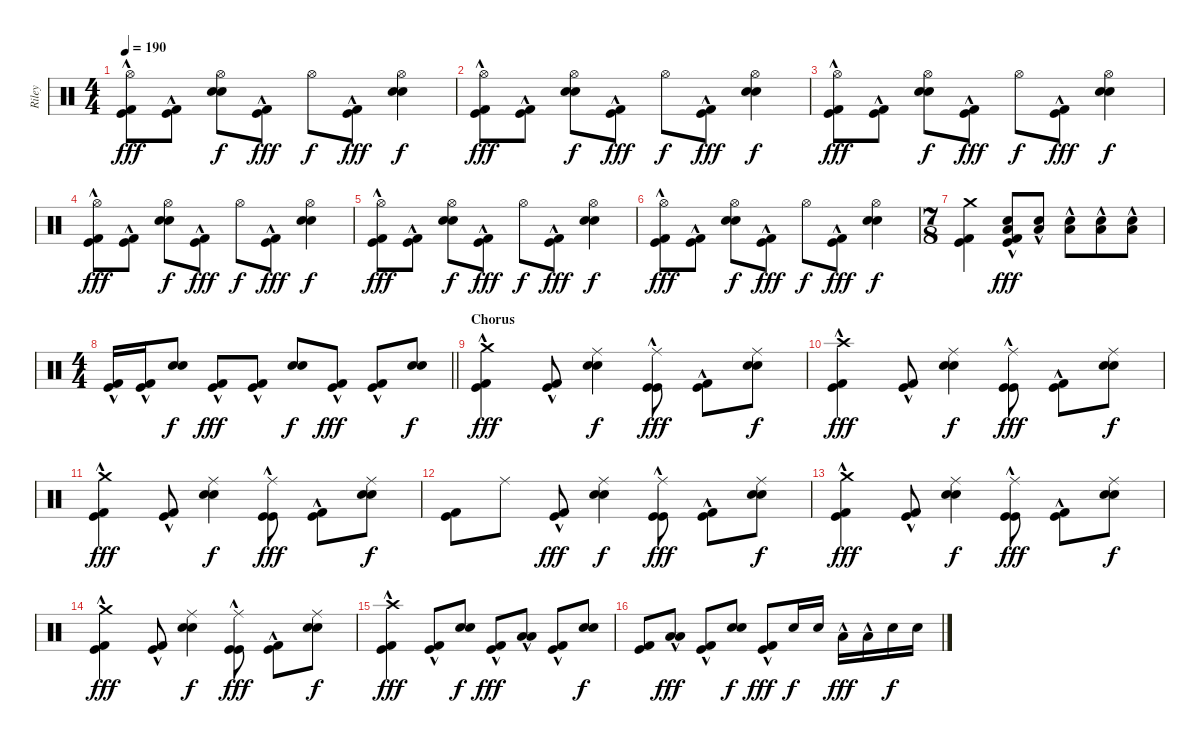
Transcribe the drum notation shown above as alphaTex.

\track ("Riley" "Riley") {instrument percussion}
\staff {score}
\articulation defaults
\ts (4 4)
\tempo 190
\clef neutral
\ks c
("Hi-Hat (open)" "Kick (hit)"{hac} "Kick (hit) 2"{hac}).8{dy fff} ("Kick (hit)"{hac} "Kick (hit) 2"{hac}).8 ("Hi-Hat (open)" "Electric Snare (hit)" "Snare (hit) 2").8{dy f} ("Kick (hit)"{hac} "Kick (hit) 2"{hac}).8{dy fff} "Hi-Hat (open)".8{dy f} ("Kick (hit)"{hac} "Kick (hit) 2"{hac}).8{dy fff} ("Hi-Hat (open)" "Electric Snare (hit)" "Snare (hit) 2").4{dy f} |
("Hi-Hat (open)" "Kick (hit)"{hac} "Kick (hit) 2"{hac}).8{dy fff} ("Kick (hit)"{hac} "Kick (hit) 2"{hac}).8 ("Hi-Hat (open)" "Electric Snare (hit)" "Snare (hit) 2").8{dy f} ("Kick (hit)"{hac} "Kick (hit) 2"{hac}).8{dy fff} "Hi-Hat (open)".8{dy f} ("Kick (hit)"{hac} "Kick (hit) 2"{hac}).8{dy fff} ("Hi-Hat (open)" "Electric Snare (hit)" "Snare (hit) 2").4{dy f} |
("Hi-Hat (open)" "Kick (hit)"{hac} "Kick (hit) 2"{hac}).8{dy fff} ("Kick (hit)"{hac} "Kick (hit) 2"{hac}).8 ("Hi-Hat (open)" "Electric Snare (hit)" "Snare (hit) 2").8{dy f} ("Kick (hit)"{hac} "Kick (hit) 2"{hac}).8{dy fff} "Hi-Hat (open)".8{dy f} ("Kick (hit)"{hac} "Kick (hit) 2"{hac}).8{dy fff} ("Hi-Hat (open)" "Electric Snare (hit)" "Snare (hit) 2").4{dy f} |
("Hi-Hat (open)" "Kick (hit)"{hac} "Kick (hit) 2"{hac}).8{dy fff} ("Kick (hit)"{hac} "Kick (hit) 2"{hac}).8 ("Hi-Hat (open)" "Electric Snare (hit)" "Snare (hit) 2").8{dy f} ("Kick (hit)"{hac} "Kick (hit) 2"{hac}).8{dy fff} "Hi-Hat (open)".8{dy f} ("Kick (hit)"{hac} "Kick (hit) 2"{hac}).8{dy fff} ("Hi-Hat (open)" "Electric Snare (hit)" "Snare (hit) 2").4{dy f} |
("Hi-Hat (open)" "Kick (hit)"{hac} "Kick (hit) 2"{hac}).8{dy fff} ("Kick (hit)"{hac} "Kick (hit) 2"{hac}).8 ("Hi-Hat (open)" "Electric Snare (hit)" "Snare (hit) 2").8{dy f} ("Kick (hit)"{hac} "Kick (hit) 2"{hac}).8{dy fff} "Hi-Hat (open)".8{dy f} ("Kick (hit)"{hac} "Kick (hit) 2"{hac}).8{dy fff} ("Hi-Hat (open)" "Electric Snare (hit)" "Snare (hit) 2").4{dy f} |
("Hi-Hat (open)" "Kick (hit)"{hac} "Kick (hit) 2"{hac}).8{dy fff} ("Kick (hit)"{hac} "Kick (hit) 2"{hac}).8 ("Hi-Hat (open)" "Electric Snare (hit)" "Snare (hit) 2").8{dy f} ("Kick (hit)"{hac} "Kick (hit) 2"{hac}).8{dy fff} "Hi-Hat (open)".8{dy f} ("Kick (hit)"{hac} "Kick (hit) 2"{hac}).8{dy fff} ("Hi-Hat (open)" "Electric Snare (hit)" "Snare (hit) 2").4{dy f} |
\ts (7 8)
("Crash medium (hit)" "Kick (hit)" "Kick (hit) 2").4 ("Electric Snare (hit)" "Low Floor Tom (hit)"{hac} "Kick (hit)" "Kick (hit) 2").8{dy fff volume 5} ("Electric Snare (hit)" "Low Floor Tom (hit)"{hac}).8{volume 16} ("Electric Snare (hit)" "Low Floor Tom (hit)"{hac}).8 ("Electric Snare (hit)" "Low Floor Tom (hit)"{hac}).8 ("Electric Snare (hit)" "Low Floor Tom (hit)"{hac}).8 |
\ts (4 4)
\barLineRight lightlight
("Kick (hit)"{hac} "Kick (hit) 2"{hac}).16{volume 16} ("Kick (hit)"{hac} "Kick (hit) 2"{hac}).16 ("Electric Snare (hit)" "Snare (hit) 2").8{dy f} ("Kick (hit)"{hac} "Kick (hit) 2"{hac}).8{dy fff} ("Kick (hit)"{hac} "Kick (hit) 2"{hac}).8 ("Electric Snare (hit)" "Snare (hit) 2").8{dy f} ("Kick (hit)"{hac} "Kick (hit) 2"{hac}).8{dy fff} ("Kick (hit)"{hac} "Kick (hit) 2"{hac}).8 ("Electric Snare (hit)" "Snare (hit) 2").8{dy f} |
\section ("" "Chorus")
("Crash medium (hit)" "Kick (hit)"{hac} "Kick (hit) 2"{hac}).4{dy fff} ("Kick (hit)"{hac} "Kick (hit) 2"{hac}).8 ("Ride (middle)" "Electric Snare (hit)" "Snare (hit) 2").4{dy f} ("Ride (middle)" "Kick (hit)"{hac} "Kick (hit)"{hac}).8{dy fff} ("Kick (hit)"{hac} "Kick (hit) 2"{hac}).8 ("Ride (middle)" "Electric Snare (hit)" "Snare (hit) 2").8{dy f} |
("Crash high (hit)" "Kick (hit)"{hac} "Kick (hit) 2"{hac}).4{dy fff} ("Kick (hit)"{hac} "Kick (hit) 2"{hac}).8 ("Ride (middle)" "Electric Snare (hit)" "Snare (hit) 2").4{dy f} ("Ride (middle)" "Kick (hit)"{hac} "Kick (hit)"{hac}).8{dy fff} ("Kick (hit)"{hac} "Kick (hit) 2"{hac}).8 ("Ride (middle)" "Electric Snare (hit)" "Snare (hit) 2").8{dy f} |
("Crash medium (hit)" "Kick (hit)"{hac} "Kick (hit) 2"{hac}).4{dy fff} ("Kick (hit)"{hac} "Kick (hit) 2"{hac}).8 ("Ride (middle)" "Electric Snare (hit)" "Snare (hit) 2").4{dy f} ("Ride (middle)" "Kick (hit)"{hac} "Kick (hit)"{hac}).8{dy fff} ("Kick (hit)"{hac} "Kick (hit) 2"{hac}).8 ("Ride (middle)" "Electric Snare (hit)" "Snare (hit) 2").8{dy f} |
("Kick (hit)" "Kick (hit) 2").8 "Ride (middle)".8 ("Kick (hit)"{hac} "Kick (hit) 2"{hac}).8{dy fff} ("Ride (middle)" "Electric Snare (hit)" "Snare (hit) 2").4{dy f} ("Ride (middle)" "Kick (hit)"{hac} "Kick (hit)"{hac}).8{dy fff} ("Kick (hit)"{hac} "Kick (hit) 2"{hac}).8 ("Ride (middle)" "Electric Snare (hit)" "Snare (hit) 2").8{dy f} |
("Crash medium (hit)" "Kick (hit)"{hac} "Kick (hit) 2"{hac}).4{dy fff} ("Kick (hit)"{hac} "Kick (hit) 2"{hac}).8 ("Ride (middle)" "Electric Snare (hit)" "Snare (hit) 2").4{dy f} ("Ride (middle)" "Kick (hit)"{hac} "Kick (hit)"{hac}).8{dy fff} ("Kick (hit)"{hac} "Kick (hit) 2"{hac}).8 ("Ride (middle)" "Electric Snare (hit)" "Snare (hit) 2").8{dy f} |
("Crash medium (hit)" "Kick (hit)"{hac} "Kick (hit) 2"{hac}).4{dy fff} ("Kick (hit)"{hac} "Kick (hit) 2"{hac}).8 ("Ride (middle)" "Electric Snare (hit)" "Snare (hit) 2").4{dy f} ("Ride (middle)" "Kick (hit)"{hac} "Kick (hit)"{hac}).8{dy fff} ("Kick (hit)"{hac} "Kick (hit) 2"{hac}).8 ("Ride (middle)" "Electric Snare (hit)" "Snare (hit) 2").8{dy f} |
("Crash high (hit)" "Kick (hit)"{hac} "Kick (hit) 2"{hac}).4{dy fff} ("Kick (hit)"{hac} "Kick (hit) 2"{hac}).8 ("Electric Snare (hit)" "Snare (hit) 2").8{dy f} ("Kick (hit)"{hac} "Kick (hit) 2"{hac}).8{dy fff} ("Low Tom (hit)"{hac} "Low Floor Tom (hit)"{hac}).8 ("Kick (hit)"{hac} "Kick (hit) 2"{hac}).8 ("Electric Snare (hit)" "Snare (hit) 2").8{dy f} |
("Kick (hit)" "Kick (hit) 2").8 ("Low Tom (hit)"{hac} "Low Floor Tom (hit)"{hac}).8{dy fff} ("Kick (hit)"{hac} "Kick (hit) 2"{hac}).8 ("Electric Snare (hit)" "Snare (hit) 2").8{dy f} ("Kick (hit)"{hac} "Kick (hit) 2"{hac}).8{dy fff} "Electric Snare (hit)".16{dy f} "Electric Snare (hit)".16 "Low Tom (hit)"{hac}.16{dy fff} "Low Tom (hit)"{hac}.16 "Electric Snare (hit)".16{dy f} "Electric Snare (hit)".16
